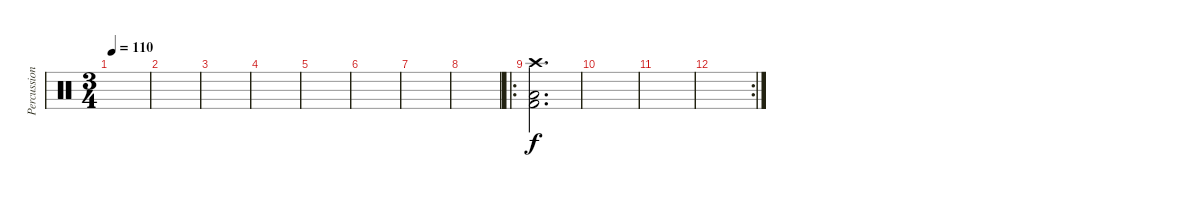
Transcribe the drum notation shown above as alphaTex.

\track ("Percussion" "Percussion") {instrument percussion}
\staff {score}
\articulation defaults
\ts (3 4)
\tempo 110
\clef neutral
\ks c
|
|
|
|
|
|
|
|
\ro
("Crash high (hit)" "Low Floor Tom (hit)" "Kick (hit) 2").2{d} |
|
|
\rc 2
